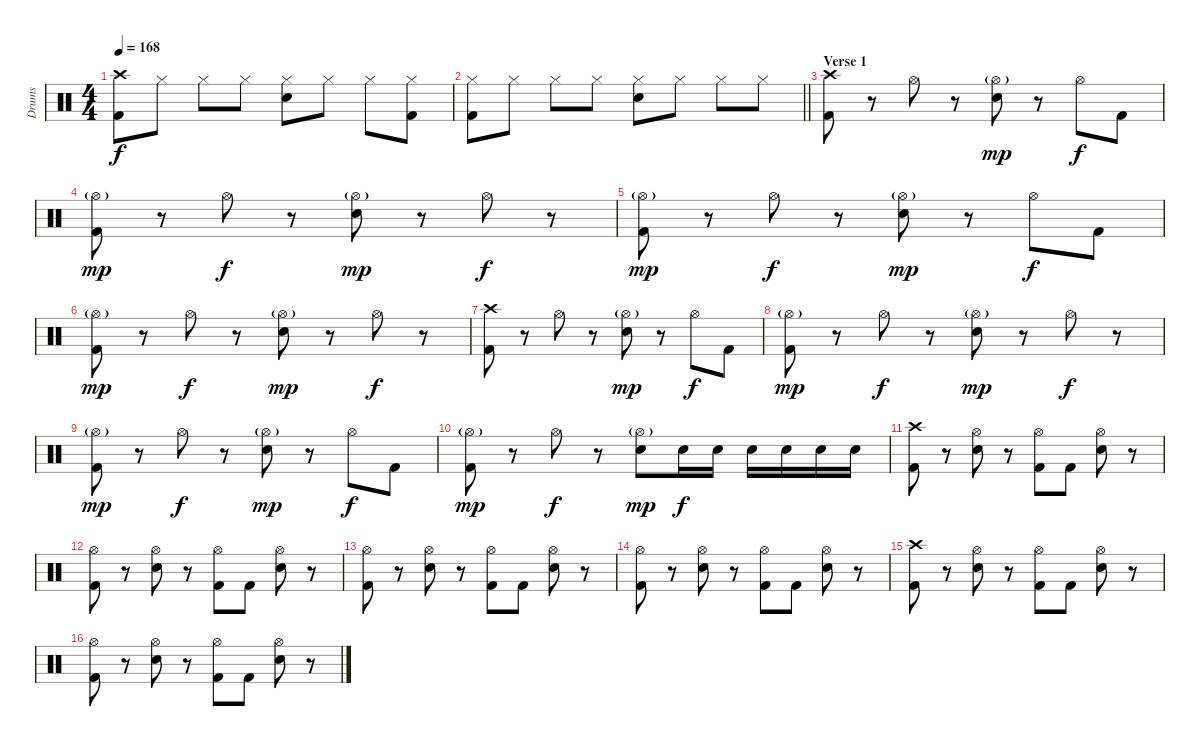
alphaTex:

\track ("Drums" "Drums") {instrument percussion}
\staff {score}
\articulation defaults
\ts (4 4)
\tempo 168
\clef neutral
\ks c
("Crash high (hit)" "Kick (hit) 2").8{dy f} "Hi-Hat (closed)".8 "Hi-Hat (closed)".8 "Hi-Hat (closed)".8 ("Hi-Hat (closed)" "Hand Clap (hit)").8 "Hi-Hat (closed)".8 "Hi-Hat (closed)".8 ("Hi-Hat (closed)" "Kick (hit) 2").8 |
\barLineRight lightlight
("Hi-Hat (closed)" "Kick (hit) 2").8 "Hi-Hat (closed)".8 "Hi-Hat (closed)".8 "Hi-Hat (closed)".8 ("Hi-Hat (closed)" "Hand Clap (hit)").8 "Hi-Hat (closed)".8 "Hi-Hat (closed)".8 "Hi-Hat (closed)".8 |
\section ("" "Verse 1")
("Crash high (hit)" "Kick (hit) 2").8 r.8 "Hi-Hat (open)".8 r.8 ("Hi-Hat (open)"{g} "Snare (hit) 2").8{dy mp} r.8 "Hi-Hat (open)".8{dy f} "Kick (hit) 2".8 |
("Hi-Hat (open)"{g} "Kick (hit) 2").8{dy mp} r.8 "Hi-Hat (open)".8{dy f} r.8 ("Hi-Hat (open)"{g} "Snare (hit) 2").8{dy mp} r.8 "Hi-Hat (open)".8{dy f} r.8 |
("Hi-Hat (open)"{g} "Kick (hit) 2").8{dy mp} r.8 "Hi-Hat (open)".8{dy f} r.8 ("Hi-Hat (open)"{g} "Snare (hit) 2").8{dy mp} r.8 "Hi-Hat (open)".8{dy f} "Kick (hit) 2".8 |
("Hi-Hat (open)"{g} "Kick (hit) 2").8{dy mp} r.8 "Hi-Hat (open)".8{dy f} r.8 ("Hi-Hat (open)"{g} "Snare (hit) 2").8{dy mp} r.8 "Hi-Hat (open)".8{dy f} r.8 |
("Crash high (hit)" "Kick (hit) 2").8 r.8 "Hi-Hat (open)".8 r.8 ("Hi-Hat (open)"{g} "Snare (hit) 2").8{dy mp} r.8 "Hi-Hat (open)".8{dy f} "Kick (hit) 2".8 |
("Hi-Hat (open)"{g} "Kick (hit) 2").8{dy mp} r.8 "Hi-Hat (open)".8{dy f} r.8 ("Hi-Hat (open)"{g} "Snare (hit) 2").8{dy mp} r.8 "Hi-Hat (open)".8{dy f} r.8 |
("Hi-Hat (open)"{g} "Kick (hit) 2").8{dy mp} r.8 "Hi-Hat (open)".8{dy f} r.8 ("Hi-Hat (open)"{g} "Snare (hit) 2").8{dy mp} r.8 "Hi-Hat (open)".8{dy f} "Kick (hit) 2".8 |
("Hi-Hat (open)"{g} "Kick (hit) 2").8{dy mp} r.8 "Hi-Hat (open)".8{dy f} r.8 ("Hi-Hat (open)"{g} "Snare (hit) 2").8{dy mp} "Snare (hit) 2".16{dy f} "Snare (hit) 2".16 "Snare (hit) 2".16 "Snare (hit) 2".16 "Snare (hit) 2".16 "Snare (hit) 2".16 |
("Crash high (hit)" "Kick (hit) 2").8 r.8 ("Hi-Hat (open)" "Snare (hit) 2").8 r.8 ("Hi-Hat (open)" "Kick (hit) 2").8 "Kick (hit) 2".8 ("Hi-Hat (open)" "Snare (hit) 2").8 r.8 |
("Hi-Hat (open)" "Kick (hit) 2").8 r.8 ("Hi-Hat (open)" "Snare (hit) 2").8 r.8 ("Hi-Hat (open)" "Kick (hit) 2").8 "Kick (hit) 2".8 ("Hi-Hat (open)" "Snare (hit) 2").8 r.8 |
("Hi-Hat (open)" "Kick (hit) 2").8 r.8 ("Hi-Hat (open)" "Snare (hit) 2").8 r.8 ("Hi-Hat (open)" "Kick (hit) 2").8 "Kick (hit) 2".8 ("Hi-Hat (open)" "Snare (hit) 2").8 r.8 |
("Hi-Hat (open)" "Kick (hit) 2").8 r.8 ("Hi-Hat (open)" "Snare (hit) 2").8 r.8 ("Hi-Hat (open)" "Kick (hit) 2").8 "Kick (hit) 2".8 ("Hi-Hat (open)" "Snare (hit) 2").8 r.8 |
("Crash high (hit)" "Kick (hit) 2").8 r.8 ("Hi-Hat (open)" "Snare (hit) 2").8 r.8 ("Hi-Hat (open)" "Kick (hit) 2").8 "Kick (hit) 2".8 ("Hi-Hat (open)" "Snare (hit) 2").8 r.8 |
("Hi-Hat (open)" "Kick (hit) 2").8 r.8 ("Hi-Hat (open)" "Snare (hit) 2").8 r.8 ("Hi-Hat (open)" "Kick (hit) 2").8 "Kick (hit) 2".8 ("Hi-Hat (open)" "Snare (hit) 2").8 r.8
